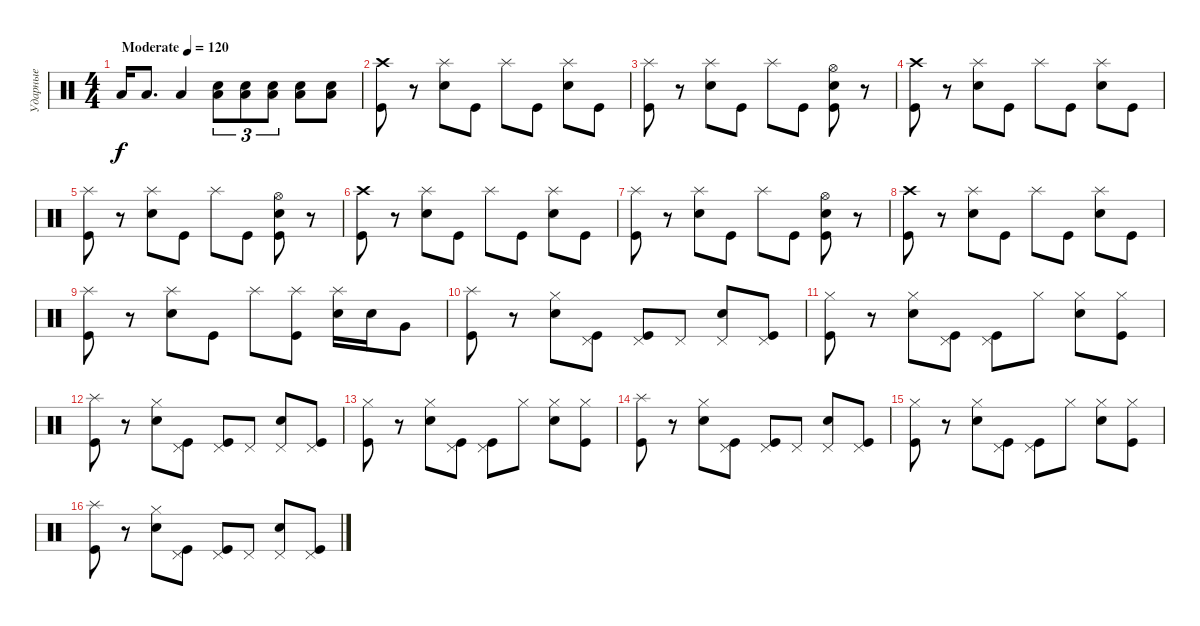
\track ("Ударные" "Ударные") {instrument percussion}
\staff {score}
\articulation defaults
\ts (4 4)
\tempo (120 "Moderate")
\clef neutral
\ks c "Low Tom (hit)".16{dy f} "Low Tom (hit)".8{d} "Low Tom (hit)".4
("Snare (hit) 2" "Low Tom (hit)").8{tu (3 2)} ("Snare (hit) 2" "Low Tom (hit)").8{tu (3 2)} ("Snare (hit) 2" "Low Tom (hit)").8{tu (3 2)} ("Snare (hit) 2" "Low Tom (hit)").8 ("Snare (hit) 2" "Low Tom (hit)").8 |
("Crash high (hit)" "Kick (hit)").8 r.8 ("Splash (hit)" "Snare (hit) 2").8 "Kick (hit)".8 "Splash (hit)".8 "Kick (hit)".8 ("Splash (hit)" "Snare (hit) 2").8 "Kick (hit)".8 |
("Splash (hit)" "Kick (hit)").8 r.8 ("Splash (hit)" "Snare (hit) 2").8 "Kick (hit)".8 "Splash (hit)".8 "Kick (hit)".8 ("Hi-Hat (open)" "Snare (hit) 2" "Kick (hit)").8 r.8 |
("Crash high (hit)" "Kick (hit)").8 r.8 ("Splash (hit)" "Snare (hit) 2").8 "Kick (hit)".8 "Splash (hit)".8 "Kick (hit)".8 ("Splash (hit)" "Snare (hit) 2").8 "Kick (hit)".8 |
("Splash (hit)" "Kick (hit)").8 r.8 ("Splash (hit)" "Snare (hit) 2").8 "Kick (hit)".8 "Splash (hit)".8 "Kick (hit)".8 ("Hi-Hat (open)" "Snare (hit) 2" "Kick (hit)").8 r.8 |
("Crash high (hit)" "Kick (hit)").8 r.8 ("Splash (hit)" "Snare (hit) 2").8 "Kick (hit)".8 "Splash (hit)".8 "Kick (hit)".8 ("Splash (hit)" "Snare (hit) 2").8 "Kick (hit)".8 |
("Splash (hit)" "Kick (hit)").8 r.8 ("Splash (hit)" "Snare (hit) 2").8 "Kick (hit)".8 "Splash (hit)".8 "Kick (hit)".8 ("Hi-Hat (open)" "Snare (hit) 2" "Kick (hit)").8 r.8 |
("Crash high (hit)" "Kick (hit)").8 r.8 ("Splash (hit)" "Snare (hit) 2").8 "Kick (hit)".8 "Splash (hit)".8 "Kick (hit)".8 ("Splash (hit)" "Snare (hit) 2").8 "Kick (hit)".8 |
("Splash (hit)" "Kick (hit)").8 r.8 ("Splash (hit)" "Snare (hit) 2").8 "Kick (hit)".8 "Splash (hit)".8 ("Splash (hit)" "Kick (hit)").8 ("Splash (hit)" "Snare (hit) 2").16 "Snare (hit) 2".16 "Very Low Tom (hit)".8 |
("Splash (hit)" "Kick (hit)").8 r.8 ("Hi-Hat (closed)" "Snare (hit) 2").8 ("Pedal Hi-Hat (hit)" "Kick (hit)").8 ("Pedal Hi-Hat (hit)" "Kick (hit)").8 "Pedal Hi-Hat (hit)".8 ("Pedal Hi-Hat (hit)" "Snare (hit) 2").8 ("Pedal Hi-Hat (hit)" "Kick (hit)").8 |
("Hi-Hat (closed)" "Kick (hit)").8 r.8 ("Hi-Hat (closed)" "Snare (hit) 2").8 ("Pedal Hi-Hat (hit)" "Kick (hit)").8 ("Pedal Hi-Hat (hit)" "Kick (hit)").8 "Hi-Hat (closed)".8 ("Hi-Hat (closed)" "Snare (hit) 2").8 ("Hi-Hat (closed)" "Kick (hit)").8 |
("Splash (hit)" "Kick (hit)").8 r.8 ("Hi-Hat (closed)" "Snare (hit) 2").8 ("Pedal Hi-Hat (hit)" "Kick (hit)").8 ("Pedal Hi-Hat (hit)" "Kick (hit)").8 "Pedal Hi-Hat (hit)".8 ("Pedal Hi-Hat (hit)" "Snare (hit) 2").8 ("Pedal Hi-Hat (hit)" "Kick (hit)").8 |
("Hi-Hat (closed)" "Kick (hit)").8 r.8 ("Hi-Hat (closed)" "Snare (hit) 2").8 ("Pedal Hi-Hat (hit)" "Kick (hit)").8 ("Pedal Hi-Hat (hit)" "Kick (hit)").8 "Hi-Hat (closed)".8 ("Hi-Hat (closed)" "Snare (hit) 2").8 ("Hi-Hat (closed)" "Kick (hit)").8 |
("Splash (hit)" "Kick (hit)").8 r.8 ("Hi-Hat (closed)" "Snare (hit) 2").8 ("Pedal Hi-Hat (hit)" "Kick (hit)").8 ("Pedal Hi-Hat (hit)" "Kick (hit)").8 "Pedal Hi-Hat (hit)".8 ("Pedal Hi-Hat (hit)" "Snare (hit) 2").8 ("Pedal Hi-Hat (hit)" "Kick (hit)").8 |
("Hi-Hat (closed)" "Kick (hit)").8 r.8 ("Hi-Hat (closed)" "Snare (hit) 2").8 ("Pedal Hi-Hat (hit)" "Kick (hit)").8 ("Pedal Hi-Hat (hit)" "Kick (hit)").8 "Hi-Hat (closed)".8 ("Hi-Hat (closed)" "Snare (hit) 2").8 ("Hi-Hat (closed)" "Kick (hit)").8 |
("Splash (hit)" "Kick (hit)").8 r.8 ("Hi-Hat (closed)" "Snare (hit) 2").8 ("Pedal Hi-Hat (hit)" "Kick (hit)").8 ("Pedal Hi-Hat (hit)" "Kick (hit)").8 "Pedal Hi-Hat (hit)".8 ("Pedal Hi-Hat (hit)" "Snare (hit) 2").8 ("Pedal Hi-Hat (hit)" "Kick (hit)").8
